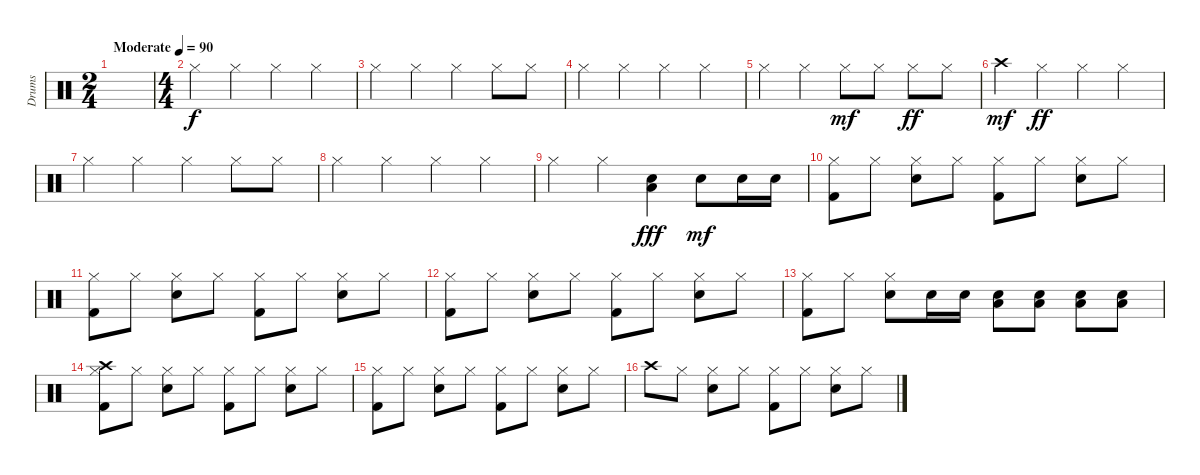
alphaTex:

\track ("Drums" "Drums") {instrument percussion}
\staff {score}
\articulation defaults
\ts (2 4)
\tempo (90 "Moderate")
\clef neutral
\ks c
|
\ts (4 4)
"Hi-Hat (closed)".4 "Hi-Hat (closed)".4 "Hi-Hat (closed)".4 "Hi-Hat (closed)".4 |
"Hi-Hat (closed)".4 "Hi-Hat (closed)".4 "Hi-Hat (closed)".4 "Hi-Hat (closed)".8 "Hi-Hat (closed)".8 |
"Hi-Hat (closed)".4 "Hi-Hat (closed)".4 "Hi-Hat (closed)".4 "Hi-Hat (closed)".4 |
"Hi-Hat (closed)".4 "Hi-Hat (closed)".4 "Hi-Hat (closed)".8{dy mf} "Hi-Hat (closed)".8 "Hi-Hat (closed)".8{dy ff} "Hi-Hat (closed)".8 |
"Crash high (hit)".4{dy mf} "Hi-Hat (closed)".4{dy ff} "Hi-Hat (closed)".4 "Hi-Hat (closed)".4 |
"Hi-Hat (closed)".4 "Hi-Hat (closed)".4 "Hi-Hat (closed)".4 "Hi-Hat (closed)".8 "Hi-Hat (closed)".8 |
"Hi-Hat (closed)".4 "Hi-Hat (closed)".4 "Hi-Hat (closed)".4 "Hi-Hat (closed)".4 |
"Hi-Hat (closed)".4 "Hi-Hat (closed)".4 ("Low Floor Tom (hit)" "Snare (hit) 2").4{dy fff} "Snare (hit) 2".8{dy mf} "Snare (hit) 2".16 "Snare (hit) 2".16 |
("Hi-Hat (closed)" "Kick (hit) 2").8 "Hi-Hat (closed)".8 ("Hi-Hat (closed)" "Snare (hit) 2").8 "Hi-Hat (closed)".8 ("Hi-Hat (closed)" "Kick (hit) 2").8 "Hi-Hat (closed)".8 ("Hi-Hat (closed)" "Snare (hit) 2").8 "Hi-Hat (closed)".8 |
("Hi-Hat (closed)" "Kick (hit) 2").8 "Hi-Hat (closed)".8 ("Hi-Hat (closed)" "Snare (hit) 2").8 "Hi-Hat (closed)".8 ("Hi-Hat (closed)" "Kick (hit) 2").8 "Hi-Hat (closed)".8 ("Hi-Hat (closed)" "Snare (hit) 2").8 "Hi-Hat (closed)".8 |
("Hi-Hat (closed)" "Kick (hit) 2").8 "Hi-Hat (closed)".8 ("Hi-Hat (closed)" "Snare (hit) 2").8 "Hi-Hat (closed)".8 ("Hi-Hat (closed)" "Kick (hit) 2").8 "Hi-Hat (closed)".8 ("Hi-Hat (closed)" "Snare (hit) 2").8 "Hi-Hat (closed)".8 |
("Hi-Hat (closed)" "Kick (hit) 2").8 "Hi-Hat (closed)".8 ("Hi-Hat (closed)" "Snare (hit) 2").8 "Snare (hit) 2".16 "Snare (hit) 2".16 ("Snare (hit) 2" "Low Floor Tom (hit)").8 ("Snare (hit) 2" "Low Floor Tom (hit)").8 ("Snare (hit) 2" "Low Floor Tom (hit)").8 ("Snare (hit) 2" "Low Floor Tom (hit)").8 |
("Hi-Hat (closed)" "Crash high (hit)" "Kick (hit) 2").8 "Hi-Hat (closed)".8 ("Hi-Hat (closed)" "Snare (hit) 2").8 "Hi-Hat (closed)".8 ("Hi-Hat (closed)" "Kick (hit) 2").8 "Hi-Hat (closed)".8 ("Hi-Hat (closed)" "Snare (hit) 2").8 "Hi-Hat (closed)".8 |
("Hi-Hat (closed)" "Kick (hit) 2").8 "Hi-Hat (closed)".8 ("Hi-Hat (closed)" "Snare (hit) 2").8 "Hi-Hat (closed)".8 ("Hi-Hat (closed)" "Kick (hit) 2").8 "Hi-Hat (closed)".8 ("Hi-Hat (closed)" "Snare (hit) 2").8 "Hi-Hat (closed)".8 |
"Crash high (hit)".8 "Hi-Hat (closed)".8 ("Hi-Hat (closed)" "Snare (hit) 2").8 "Hi-Hat (closed)".8 ("Hi-Hat (closed)" "Kick (hit) 2").8 "Hi-Hat (closed)".8 ("Hi-Hat (closed)" "Snare (hit) 2").8 "Hi-Hat (closed)".8
